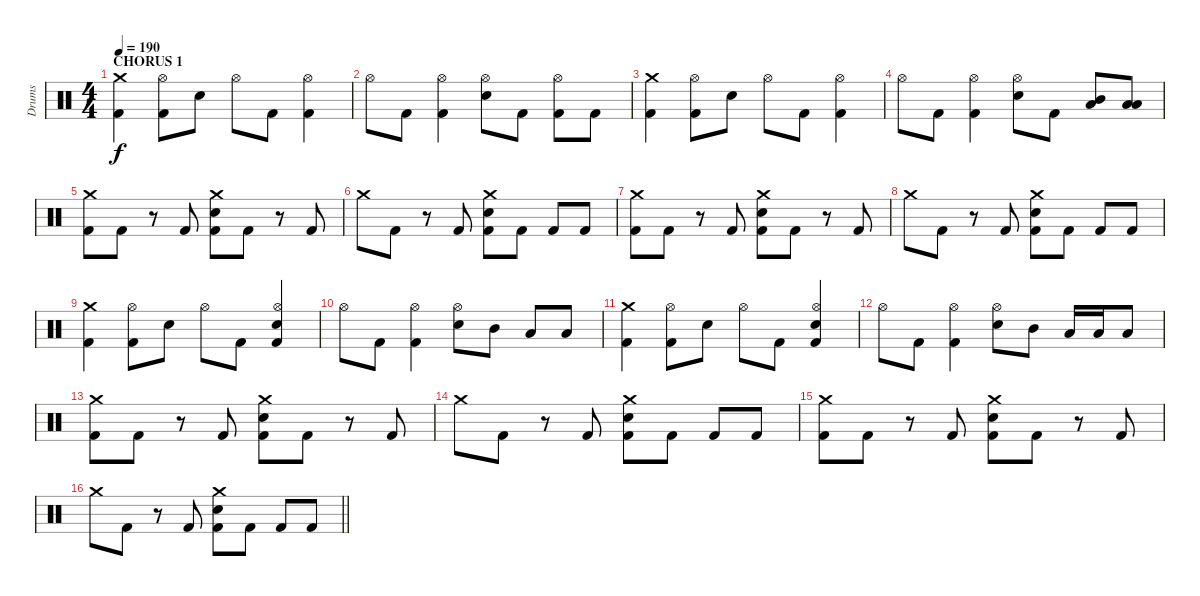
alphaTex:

\track ("Drums" "Drums") {instrument percussion}
\staff {score}
\articulation defaults
\ts (4 4)
\section ("" "CHORUS 1")
\tempo 190
\clef neutral
\ks c
("Crash medium (hit)" "Kick (hit) 2").4{dy f} ("Hi-Hat (open)" "Kick (hit) 2").8 "Electric Snare (hit)".8 "Hi-Hat (open)".8 "Kick (hit) 2".8 ("Hi-Hat (open)" "Kick (hit) 2").4 |
"Hi-Hat (open)".8 "Kick (hit) 2".8 ("Hi-Hat (open)" "Kick (hit) 2").4 ("Hi-Hat (open)" "Electric Snare (hit)").8 "Kick (hit) 2".8 ("Hi-Hat (open)" "Kick (hit) 2").8 "Kick (hit) 2".8 |
("Crash medium (hit)" "Kick (hit) 2").4 ("Hi-Hat (open)" "Kick (hit) 2").8 "Electric Snare (hit)".8 "Hi-Hat (open)".8 "Kick (hit) 2".8 ("Hi-Hat (open)" "Kick (hit) 2").4 |
"Hi-Hat (open)".8 "Kick (hit) 2".8 ("Hi-Hat (open)" "Kick (hit) 2").4 ("Hi-Hat (open)" "Electric Snare (hit)").8 "Kick (hit) 2".8 ("Mid Tom (hit)" "Low Tom (hit)").8 ("Low Tom (hit)" "Low Floor Tom (hit)").8 |
("Crash medium (hit)" "Kick (hit) 2").8 "Kick (hit) 2".8 r.8 "Kick (hit) 2".8 ("Crash medium (hit)" "Electric Snare (hit)" "Kick (hit) 2").8 "Kick (hit) 2".8 r.8 "Kick (hit) 2".8 |
"Crash medium (hit)".8 "Kick (hit) 2".8 r.8 "Kick (hit) 2".8 ("Crash medium (hit)" "Electric Snare (hit)" "Kick (hit) 2").8 "Kick (hit) 2".8 "Kick (hit) 2".8 "Kick (hit) 2".8 |
("Crash medium (hit)" "Kick (hit) 2").8 "Kick (hit) 2".8 r.8 "Kick (hit) 2".8 ("Crash medium (hit)" "Electric Snare (hit)" "Kick (hit) 2").8 "Kick (hit) 2".8 r.8 "Kick (hit) 2".8 |
"Crash medium (hit)".8 "Kick (hit) 2".8 r.8 "Kick (hit) 2".8 ("Crash medium (hit)" "Electric Snare (hit)" "Kick (hit) 2").8 "Kick (hit) 2".8 "Kick (hit) 2".8 "Kick (hit) 2".8 |
("Crash medium (hit)" "Kick (hit) 2").4 ("Hi-Hat (open)" "Kick (hit) 2").8 "Electric Snare (hit)".8 "Hi-Hat (open)".8 "Kick (hit) 2".8 ("Hi-Hat (open)" "Electric Snare (hit)" "Kick (hit) 2").4 |
"Hi-Hat (open)".8 "Kick (hit) 2".8 ("Hi-Hat (open)" "Kick (hit) 2").4 ("Hi-Hat (open)" "Electric Snare (hit)").8 "Mid Tom (hit)".8 "Low Tom (hit)".8 "Low Floor Tom (hit)".8 |
("Crash medium (hit)" "Kick (hit) 2").4 ("Hi-Hat (open)" "Kick (hit) 2").8 "Electric Snare (hit)".8 "Hi-Hat (open)".8 "Kick (hit) 2".8 ("Hi-Hat (open)" "Electric Snare (hit)" "Kick (hit) 2").4 |
"Hi-Hat (open)".8 "Kick (hit) 2".8 ("Hi-Hat (open)" "Kick (hit) 2").4 ("Hi-Hat (open)" "Electric Snare (hit)").8 "Mid Tom (hit)".8 "Low Tom (hit)".16 "Low Tom (hit)".16 "Low Floor Tom (hit)".8 |
("Crash medium (hit)" "Kick (hit) 2").8 "Kick (hit) 2".8 r.8 "Kick (hit) 2".8 ("Crash medium (hit)" "Electric Snare (hit)" "Kick (hit) 2").8 "Kick (hit) 2".8 r.8 "Kick (hit) 2".8 |
"Crash medium (hit)".8 "Kick (hit) 2".8 r.8 "Kick (hit) 2".8 ("Crash medium (hit)" "Electric Snare (hit)" "Kick (hit) 2").8 "Kick (hit) 2".8 "Kick (hit) 2".8 "Kick (hit) 2".8 |
("Crash medium (hit)" "Kick (hit) 2").8 "Kick (hit) 2".8 r.8 "Kick (hit) 2".8 ("Crash medium (hit)" "Electric Snare (hit)" "Kick (hit) 2").8 "Kick (hit) 2".8 r.8 "Kick (hit) 2".8 |
\barLineRight lightlight "Crash medium (hit)".8 "Kick (hit) 2".8
r.8 "Kick (hit) 2".8 ("Crash medium (hit)" "Electric Snare (hit)" "Kick (hit) 2").8 "Kick (hit) 2".8 "Kick (hit) 2".8 "Kick (hit) 2".8
